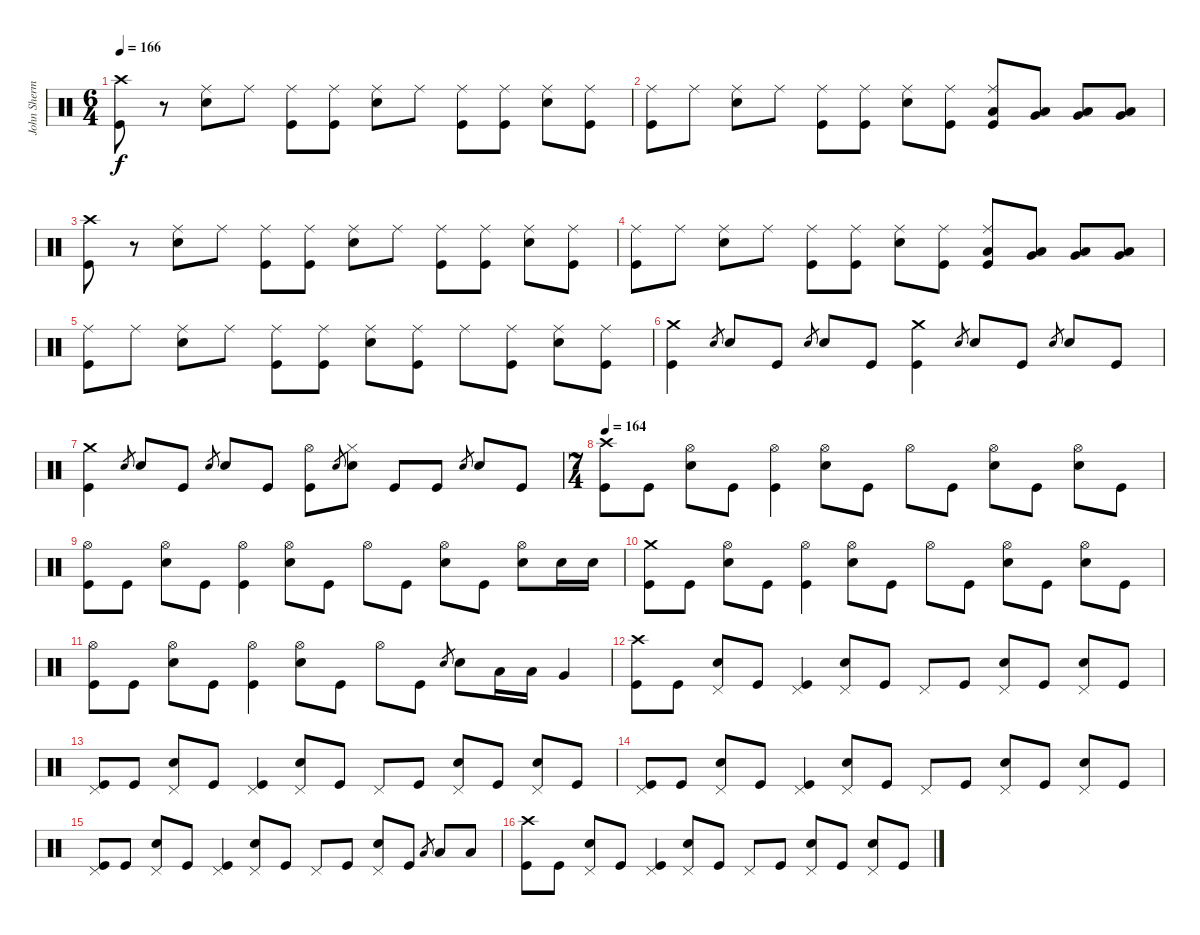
\track ("John Sherman" "John Sherm") {instrument percussion}
\staff {score}
\articulation defaults
\ts (6 4)
\tempo 166
\clef neutral
\ks c
("Crash high (hit)" "Kick (hit)").8{dy f} r.8 ("Ride (middle)" "Electric Snare (hit)").8 "Ride (middle)".8 ("Ride (middle)" "Kick (hit)").8 ("Ride (middle)" "Kick (hit)").8 ("Ride (middle)" "Electric Snare (hit)").8 "Ride (middle)".8 ("Ride (middle)" "Kick (hit)").8 ("Ride (middle)" "Kick (hit)").8 ("Ride (middle)" "Electric Snare (hit)").8 ("Ride (middle)" "Kick (hit)").8 |
("Ride (middle)" "Kick (hit)").8 "Ride (middle)".8 ("Ride (middle)" "Electric Snare (hit)").8 "Ride (middle)".8 ("Ride (middle)" "Kick (hit)").8 ("Ride (middle)" "Kick (hit)").8 ("Ride (middle)" "Electric Snare (hit)").8 ("Ride (middle)" "Kick (hit)").8 ("Ride (middle)" "Low Tom (hit)" "Kick (hit)").8 ("Very Low Tom (hit)" "Low Tom (hit)").8 ("Very Low Tom (hit)" "Low Tom (hit)").8 ("Very Low Tom (hit)" "Low Tom (hit)").8 |
("Crash high (hit)" "Kick (hit)").8 r.8 ("Ride (middle)" "Electric Snare (hit)").8 "Ride (middle)".8 ("Ride (middle)" "Kick (hit)").8 ("Ride (middle)" "Kick (hit)").8 ("Ride (middle)" "Electric Snare (hit)").8 "Ride (middle)".8 ("Ride (middle)" "Kick (hit)").8 ("Ride (middle)" "Kick (hit)").8 ("Ride (middle)" "Electric Snare (hit)").8 ("Ride (middle)" "Kick (hit)").8 |
("Ride (middle)" "Kick (hit)").8 "Ride (middle)".8 ("Ride (middle)" "Electric Snare (hit)").8 "Ride (middle)".8 ("Ride (middle)" "Kick (hit)").8 ("Ride (middle)" "Kick (hit)").8 ("Ride (middle)" "Electric Snare (hit)").8 ("Ride (middle)" "Kick (hit)").8 ("Ride (middle)" "Low Tom (hit)" "Kick (hit)").8 ("Very Low Tom (hit)" "Low Tom (hit)").8 ("Very Low Tom (hit)" "Low Tom (hit)").8 ("Very Low Tom (hit)" "Low Tom (hit)").8 |
("Ride (middle)" "Kick (hit)").8 "Ride (middle)".8 ("Ride (middle)" "Electric Snare (hit)").8 "Ride (middle)".8 ("Ride (middle)" "Kick (hit)").8 ("Ride (middle)" "Kick (hit)").8 ("Ride (middle)" "Electric Snare (hit)").8 ("Ride (middle)" "Kick (hit)").8 "Ride (middle)".8 ("Ride (middle)" "Kick (hit)").8 ("Ride (middle)" "Electric Snare (hit)").8 ("Ride (middle)" "Kick (hit)").8 |
("Crash medium (hit)" "Kick (hit)").4 "Electric Snare (hit)".8{gr} "Electric Snare (hit)".8 "Kick (hit)".8 "Electric Snare (hit)".8{gr} "Electric Snare (hit)".8 "Kick (hit)".8 ("Crash medium (hit)" "Kick (hit)").4 "Electric Snare (hit)".8{gr} "Electric Snare (hit)".8 "Kick (hit)".8 "Electric Snare (hit)".8{gr} "Electric Snare (hit)".8 "Kick (hit)".8 |
("Crash medium (hit)" "Kick (hit)").4 "Electric Snare (hit)".8{gr} "Electric Snare (hit)".8 "Kick (hit)".8 "Electric Snare (hit)".8{gr} "Electric Snare (hit)".8 "Kick (hit)".8 ("Hi-Hat (open)" "Kick (hit)").8 "Electric Snare (hit)".8{gr} ("Hi-Hat (closed)" "Electric Snare (hit)").8 "Kick (hit)".8 "Kick (hit)".8 "Electric Snare (hit)".8{gr} "Electric Snare (hit)".8 "Kick (hit)".8 |
\ts (7 4)
\tempo 164
("Crash high (hit)" "Kick (hit)").8 "Kick (hit)".8 ("Hi-Hat (open)" "Electric Snare (hit)").8 "Kick (hit)".8 ("Hi-Hat (open)" "Kick (hit)").4 ("Hi-Hat (open)" "Electric Snare (hit)").8 "Kick (hit)".8 "Hi-Hat (open)".8 "Kick (hit)".8 ("Hi-Hat (open)" "Electric Snare (hit)").8 "Kick (hit)".8 ("Hi-Hat (open)" "Electric Snare (hit)").8 "Kick (hit)".8 |
("Hi-Hat (open)" "Kick (hit)").8 "Kick (hit)".8 ("Hi-Hat (open)" "Electric Snare (hit)").8 "Kick (hit)".8 ("Hi-Hat (open)" "Kick (hit)").4 ("Hi-Hat (open)" "Electric Snare (hit)").8 "Kick (hit)".8 "Hi-Hat (open)".8 "Kick (hit)".8 ("Hi-Hat (open)" "Electric Snare (hit)").8 "Kick (hit)".8 ("Hi-Hat (open)" "Electric Snare (hit)").8 "Electric Snare (hit)".16 "Electric Snare (hit)".16 |
("Crash medium (hit)" "Kick (hit)").8 "Kick (hit)".8 ("Hi-Hat (open)" "Electric Snare (hit)").8 "Kick (hit)".8 ("Hi-Hat (open)" "Kick (hit)").4 ("Hi-Hat (open)" "Electric Snare (hit)").8 "Kick (hit)".8 "Hi-Hat (open)".8 "Kick (hit)".8 ("Hi-Hat (open)" "Electric Snare (hit)").8 "Kick (hit)".8 ("Hi-Hat (open)" "Electric Snare (hit)").8 "Kick (hit)".8 |
("Hi-Hat (open)" "Kick (hit)").8 "Kick (hit)".8 ("Hi-Hat (open)" "Electric Snare (hit)").8 "Kick (hit)".8 ("Hi-Hat (open)" "Kick (hit)").4 ("Hi-Hat (open)" "Electric Snare (hit)").8 "Kick (hit)".8 "Hi-Hat (open)".8 "Kick (hit)".8 "Electric Snare (hit)".8{gr} "Electric Snare (hit)".8 "Low Tom (hit)".16 "Low Tom (hit)".16 "Very Low Tom (hit)".4 |
("Crash high (hit)" "Kick (hit)").8 "Kick (hit)".8 ("Pedal Hi-Hat (hit)" "Electric Snare (hit)").8 "Kick (hit)".8 ("Pedal Hi-Hat (hit)" "Kick (hit)").4 ("Pedal Hi-Hat (hit)" "Electric Snare (hit)").8 "Kick (hit)".8 "Pedal Hi-Hat (hit)".8 "Kick (hit)".8 ("Pedal Hi-Hat (hit)" "Electric Snare (hit)").8 "Kick (hit)".8 ("Pedal Hi-Hat (hit)" "Electric Snare (hit)").8 "Kick (hit)".8 |
("Pedal Hi-Hat (hit)" "Kick (hit)").8 "Kick (hit)".8 ("Pedal Hi-Hat (hit)" "Electric Snare (hit)").8 "Kick (hit)".8 ("Pedal Hi-Hat (hit)" "Kick (hit)").4 ("Pedal Hi-Hat (hit)" "Electric Snare (hit)").8 "Kick (hit)".8 "Pedal Hi-Hat (hit)".8 "Kick (hit)".8 ("Pedal Hi-Hat (hit)" "Electric Snare (hit)").8 "Kick (hit)".8 ("Pedal Hi-Hat (hit)" "Electric Snare (hit)").8 "Kick (hit)".8 |
("Pedal Hi-Hat (hit)" "Kick (hit)").8 "Kick (hit)".8 ("Pedal Hi-Hat (hit)" "Electric Snare (hit)").8 "Kick (hit)".8 ("Pedal Hi-Hat (hit)" "Kick (hit)").4 ("Pedal Hi-Hat (hit)" "Electric Snare (hit)").8 "Kick (hit)".8 "Pedal Hi-Hat (hit)".8 "Kick (hit)".8 ("Pedal Hi-Hat (hit)" "Electric Snare (hit)").8 "Kick (hit)".8 ("Pedal Hi-Hat (hit)" "Electric Snare (hit)").8 "Kick (hit)".8 |
("Pedal Hi-Hat (hit)" "Kick (hit)").8 "Kick (hit)".8 ("Pedal Hi-Hat (hit)" "Electric Snare (hit)").8 "Kick (hit)".8 ("Pedal Hi-Hat (hit)" "Kick (hit)").4 ("Pedal Hi-Hat (hit)" "Electric Snare (hit)").8 "Kick (hit)".8 "Pedal Hi-Hat (hit)".8 "Kick (hit)".8 ("Pedal Hi-Hat (hit)" "Electric Snare (hit)").8 "Kick (hit)".8 "Low Tom (hit)".8{gr} "Low Tom (hit)".8 "Low Tom (hit)".8 |
("Crash high (hit)" "Kick (hit)").8 "Kick (hit)".8 ("Pedal Hi-Hat (hit)" "Electric Snare (hit)").8 "Kick (hit)".8 ("Pedal Hi-Hat (hit)" "Kick (hit)").4 ("Pedal Hi-Hat (hit)" "Electric Snare (hit)").8 "Kick (hit)".8 "Pedal Hi-Hat (hit)".8 "Kick (hit)".8 ("Pedal Hi-Hat (hit)" "Electric Snare (hit)").8 "Kick (hit)".8 ("Pedal Hi-Hat (hit)" "Electric Snare (hit)").8 "Kick (hit)".8
